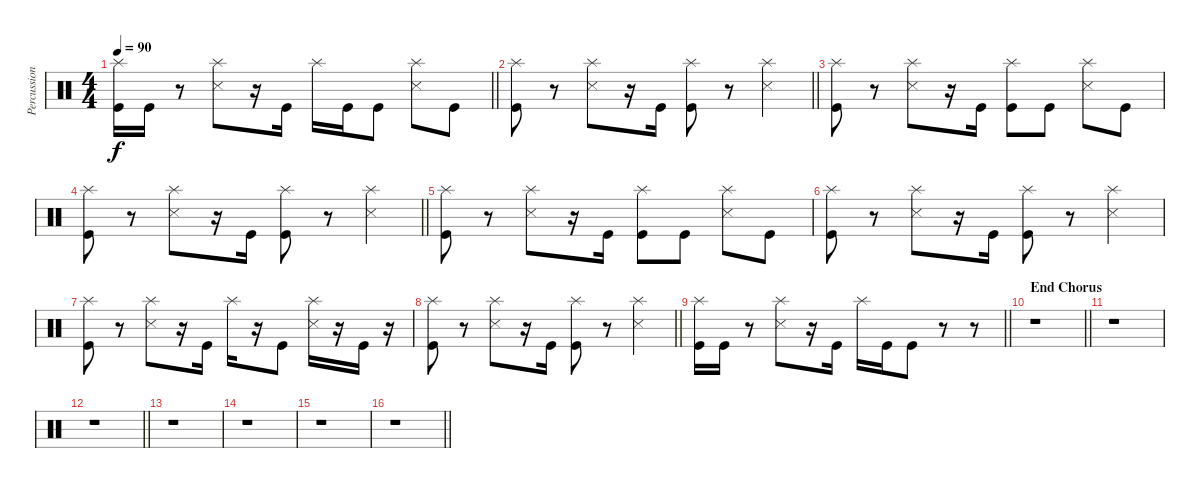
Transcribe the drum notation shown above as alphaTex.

\track ("Percussion" "Percussion") {instrument percussion}
\staff {score}
\articulation defaults
\ts (4 4)
\tempo 90
\clef neutral
\barLineRight lightlight
\ks c
("Splash (hit)" "Kick (hit)").16{dy f} "Kick (hit)".16 r.8 ("Splash (hit)" "Snare (side stick) 3").8 r.16 "Kick (hit)".16 "Splash (hit)".16 "Kick (hit)".16 "Kick (hit)".8 ("Splash (hit)" "Snare (side stick) 3").8 "Kick (hit)".8 |
\barLineRight lightlight
("Splash (hit)" "Kick (hit)").8{volume 12} r.8 ("Splash (hit)" "Snare (side stick) 3").8 r.16 "Kick (hit)".16 ("Splash (hit)" "Kick (hit)").8 r.8 ("Splash (hit)" "Snare (side stick) 3").4 |
("Splash (hit)" "Kick (hit)").8 r.8 ("Splash (hit)" "Snare (side stick) 3").8 r.16 "Kick (hit)".16 ("Splash (hit)" "Kick (hit)").8 "Kick (hit)".8 ("Splash (hit)" "Snare (side stick) 3").8 "Kick (hit)".8 |
\barLineRight lightlight
("Splash (hit)" "Kick (hit)").8 r.8 ("Splash (hit)" "Snare (side stick) 3").8 r.16 "Kick (hit)".16 ("Splash (hit)" "Kick (hit)").8 r.8 ("Splash (hit)" "Snare (side stick) 3").4 |
("Splash (hit)" "Kick (hit)").8 r.8 ("Splash (hit)" "Snare (side stick) 3").8 r.16 "Kick (hit)".16 ("Splash (hit)" "Kick (hit)").8 "Kick (hit)".8 ("Splash (hit)" "Snare (side stick) 3").8 "Kick (hit)".8 |
("Splash (hit)" "Kick (hit)").8 r.8 ("Splash (hit)" "Snare (side stick) 3").8 r.16 "Kick (hit)".16 ("Splash (hit)" "Kick (hit)").8 r.8 ("Splash (hit)" "Snare (side stick) 3").4 |
("Splash (hit)" "Kick (hit)").8 r.8 ("Splash (hit)" "Snare (side stick) 3").8 r.16 "Kick (hit)".16 "Splash (hit)".16 r.16 "Kick (hit)".8 ("Splash (hit)" "Snare (side stick) 3").16 r.16 "Kick (hit)".16 r.16 |
\barLineRight lightlight
("Splash (hit)" "Kick (hit)").8 r.8 ("Splash (hit)" "Snare (side stick) 3").8 r.16 "Kick (hit)".16 ("Splash (hit)" "Kick (hit)").8 r.8 ("Splash (hit)" "Snare (side stick) 3").4 |
\barLineRight lightlight
("Splash (hit)" "Kick (hit)").16 "Kick (hit)".16 r.8 ("Splash (hit)" "Snare (side stick) 3").8 r.16 "Kick (hit)".16 "Splash (hit)".16 "Kick (hit)".16 "Kick (hit)".8 r.8 r.8 |
\section ("" "End Chorus")
\barLineRight lightlight
r.1 |
r.1 |
\barLineRight lightlight
r.1 |
r.1 |
r.1 |
r.1 |
\barLineRight lightlight
r.1
